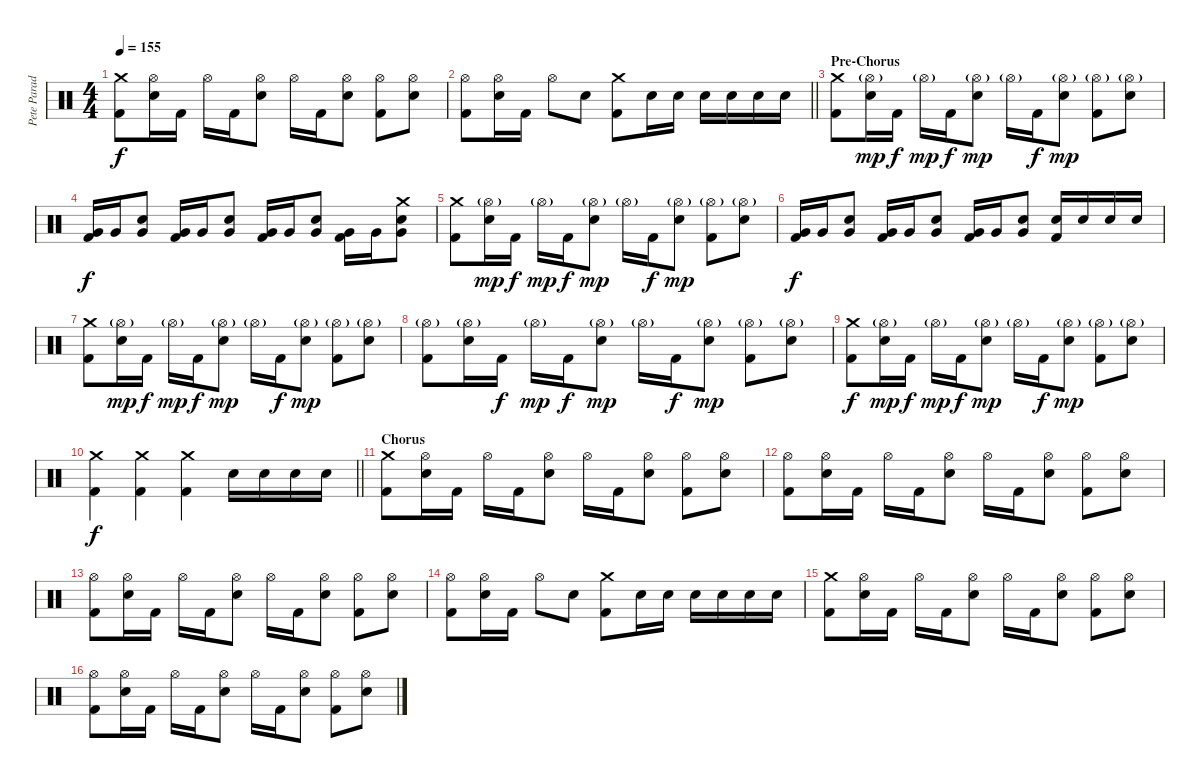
\track ("Pete Parada - Drums" "Pete Parad") {instrument percussion}
\staff {score}
\articulation defaults
\ts (4 4)
\tempo 155
\clef neutral
\ks c
("Crash medium (hit)" "Kick (hit) 2").8{dy f} ("Hi-Hat (open)" "Electric Snare (hit)").16 "Kick (hit) 2".16 "Hi-Hat (open)".16 "Kick (hit) 2".16 ("Hi-Hat (open)" "Electric Snare (hit)").8 "Hi-Hat (open)".16 "Kick (hit) 2".16 ("Hi-Hat (open)" "Electric Snare (hit)").8 ("Hi-Hat (open)" "Kick (hit) 2").8 ("Hi-Hat (open)" "Electric Snare (hit)").8 |
\barLineRight lightlight
("Hi-Hat (open)" "Kick (hit) 2").8 ("Hi-Hat (open)" "Electric Snare (hit)").16 "Kick (hit) 2".16 "Hi-Hat (open)".8 "Electric Snare (hit)".8 ("Crash medium (hit)" "Kick (hit) 2").8 "Electric Snare (hit)".16 "Electric Snare (hit)".16 "Electric Snare (hit)".16 "Electric Snare (hit)".16 "Electric Snare (hit)".16 "Electric Snare (hit)".16 |
\section ("" "Pre-Chorus")
("Crash medium (hit)" "Kick (hit) 2").8 ("Hi-Hat (open)"{g} "Electric Snare (hit)").16{dy mp} "Kick (hit) 2".16{dy f} "Hi-Hat (open)"{g}.16{dy mp} "Kick (hit) 2".16{dy f} ("Hi-Hat (open)"{g} "Electric Snare (hit)").8{dy mp} "Hi-Hat (open)"{g}.16 "Kick (hit) 2".16{dy f} ("Hi-Hat (open)"{g} "Electric Snare (hit)").8{dy mp} ("Hi-Hat (open)"{g} "Kick (hit) 2").8 ("Hi-Hat (open)"{g} "Electric Snare (hit)").8 |
("Kick (hit) 2" "Very Low Tom (hit)").16{dy f} "Very Low Tom (hit)".16 ("Electric Snare (hit)" "Very Low Tom (hit)").8 ("Kick (hit) 2" "Very Low Tom (hit)").16 "Very Low Tom (hit)".16 ("Electric Snare (hit)" "Very Low Tom (hit)").8 ("Kick (hit) 2" "Very Low Tom (hit)").16 "Very Low Tom (hit)".16 ("Electric Snare (hit)" "Very Low Tom (hit)").8 ("Kick (hit) 2" "Very Low Tom (hit)").16 "Very Low Tom (hit)".16 ("Crash medium (hit)" "Electric Snare (hit)" "Very Low Tom (hit)").8 |
("Crash medium (hit)" "Kick (hit) 2").8 ("Hi-Hat (open)"{g} "Electric Snare (hit)").16{dy mp} "Kick (hit) 2".16{dy f} "Hi-Hat (open)"{g}.16{dy mp} "Kick (hit) 2".16{dy f} ("Hi-Hat (open)"{g} "Electric Snare (hit)").8{dy mp} "Hi-Hat (open)"{g}.16 "Kick (hit) 2".16{dy f} ("Hi-Hat (open)"{g} "Electric Snare (hit)").8{dy mp} ("Hi-Hat (open)"{g} "Kick (hit) 2").8 ("Hi-Hat (open)"{g} "Electric Snare (hit)").8 |
("Kick (hit) 2" "Very Low Tom (hit)").16{dy f} "Very Low Tom (hit)".16 ("Electric Snare (hit)" "Very Low Tom (hit)").8 ("Kick (hit) 2" "Very Low Tom (hit)").16 "Very Low Tom (hit)".16 ("Electric Snare (hit)" "Very Low Tom (hit)").8 ("Kick (hit) 2" "Very Low Tom (hit)").16 "Very Low Tom (hit)".16 ("Electric Snare (hit)" "Very Low Tom (hit)").8 ("Kick (hit) 2" "Electric Snare (hit)").16 "Electric Snare (hit)".16 "Electric Snare (hit)".16 "Electric Snare (hit)".16 |
("Crash medium (hit)" "Kick (hit) 2").8 ("Hi-Hat (open)"{g} "Electric Snare (hit)").16{dy mp} "Kick (hit) 2".16{dy f} "Hi-Hat (open)"{g}.16{dy mp} "Kick (hit) 2".16{dy f} ("Hi-Hat (open)"{g} "Electric Snare (hit)").8{dy mp} "Hi-Hat (open)"{g}.16 "Kick (hit) 2".16{dy f} ("Hi-Hat (open)"{g} "Electric Snare (hit)").8{dy mp} ("Hi-Hat (open)"{g} "Kick (hit) 2").8 ("Hi-Hat (open)"{g} "Electric Snare (hit)").8 |
("Hi-Hat (open)"{g} "Kick (hit) 2").8 ("Hi-Hat (open)"{g} "Electric Snare (hit)").16 "Kick (hit) 2".16{dy f} "Hi-Hat (open)"{g}.16{dy mp} "Kick (hit) 2".16{dy f} ("Hi-Hat (open)"{g} "Electric Snare (hit)").8{dy mp} "Hi-Hat (open)"{g}.16 "Kick (hit) 2".16{dy f} ("Hi-Hat (open)"{g} "Electric Snare (hit)").8{dy mp} ("Hi-Hat (open)"{g} "Kick (hit) 2").8 ("Hi-Hat (open)"{g} "Electric Snare (hit)").8 |
("Crash medium (hit)" "Kick (hit) 2").8{dy f} ("Hi-Hat (open)"{g} "Electric Snare (hit)").16{dy mp} "Kick (hit) 2".16{dy f} "Hi-Hat (open)"{g}.16{dy mp} "Kick (hit) 2".16{dy f} ("Hi-Hat (open)"{g} "Electric Snare (hit)").8{dy mp} "Hi-Hat (open)"{g}.16 "Kick (hit) 2".16{dy f} ("Hi-Hat (open)"{g} "Electric Snare (hit)").8{dy mp} ("Hi-Hat (open)"{g} "Kick (hit) 2").8 ("Hi-Hat (open)"{g} "Electric Snare (hit)").8 |
\barLineRight lightlight
("Crash medium (hit)" "Kick (hit) 2").4{dy f} ("Crash medium (hit)" "Kick (hit) 2").4 ("Crash medium (hit)" "Kick (hit) 2").4 "Electric Snare (hit)".16 "Electric Snare (hit)".16 "Electric Snare (hit)".16 "Electric Snare (hit)".16 |
\section ("" "Chorus")
("Crash medium (hit)" "Kick (hit) 2").8 ("Hi-Hat (open)" "Electric Snare (hit)").16 "Kick (hit) 2".16 "Hi-Hat (open)".16 "Kick (hit) 2".16 ("Hi-Hat (open)" "Electric Snare (hit)").8 "Hi-Hat (open)".16 "Kick (hit) 2".16 ("Hi-Hat (open)" "Electric Snare (hit)").8 ("Hi-Hat (open)" "Kick (hit) 2").8 ("Hi-Hat (open)" "Electric Snare (hit)").8 |
("Hi-Hat (open)" "Kick (hit) 2").8 ("Hi-Hat (open)" "Electric Snare (hit)").16 "Kick (hit) 2".16 "Hi-Hat (open)".16 "Kick (hit) 2".16 ("Hi-Hat (open)" "Electric Snare (hit)").8 "Hi-Hat (open)".16 "Kick (hit) 2".16 ("Hi-Hat (open)" "Electric Snare (hit)").8 ("Hi-Hat (open)" "Kick (hit) 2").8 ("Hi-Hat (open)" "Electric Snare (hit)").8 |
("Hi-Hat (open)" "Kick (hit) 2").8 ("Hi-Hat (open)" "Electric Snare (hit)").16 "Kick (hit) 2".16 "Hi-Hat (open)".16 "Kick (hit) 2".16 ("Hi-Hat (open)" "Electric Snare (hit)").8 "Hi-Hat (open)".16 "Kick (hit) 2".16 ("Hi-Hat (open)" "Electric Snare (hit)").8 ("Hi-Hat (open)" "Kick (hit) 2").8 ("Hi-Hat (open)" "Electric Snare (hit)").8 |
("Hi-Hat (open)" "Kick (hit) 2").8 ("Hi-Hat (open)" "Electric Snare (hit)").16 "Kick (hit) 2".16 "Hi-Hat (open)".8 "Electric Snare (hit)".8 ("Crash medium (hit)" "Kick (hit) 2").8 "Electric Snare (hit)".16 "Electric Snare (hit)".16 "Electric Snare (hit)".16 "Electric Snare (hit)".16 "Electric Snare (hit)".16 "Electric Snare (hit)".16 |
("Crash medium (hit)" "Kick (hit) 2").8 ("Hi-Hat (open)" "Electric Snare (hit)").16 "Kick (hit) 2".16 "Hi-Hat (open)".16 "Kick (hit) 2".16 ("Hi-Hat (open)" "Electric Snare (hit)").8 "Hi-Hat (open)".16 "Kick (hit) 2".16 ("Hi-Hat (open)" "Electric Snare (hit)").8 ("Hi-Hat (open)" "Kick (hit) 2").8 ("Hi-Hat (open)" "Electric Snare (hit)").8 |
("Hi-Hat (open)" "Kick (hit) 2").8 ("Hi-Hat (open)" "Electric Snare (hit)").16 "Kick (hit) 2".16 "Hi-Hat (open)".16 "Kick (hit) 2".16 ("Hi-Hat (open)" "Electric Snare (hit)").8 "Hi-Hat (open)".16 "Kick (hit) 2".16 ("Hi-Hat (open)" "Electric Snare (hit)").8 ("Hi-Hat (open)" "Kick (hit) 2").8 ("Hi-Hat (open)" "Electric Snare (hit)").8
